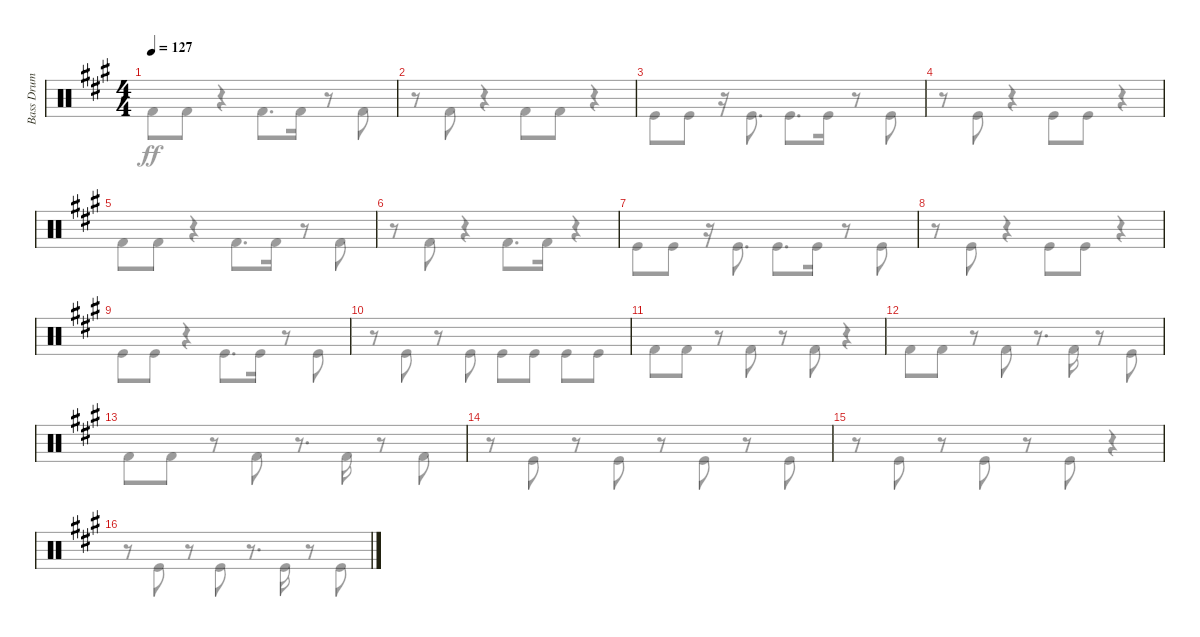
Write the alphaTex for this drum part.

\track ("Bass Drum" "Bass Drum") {instrument percussion}
\staff {score}
\articulation defaults
\voice
\ts (4 4)
\tempo 127
\clef neutral
\ks a
|
|
|
|
|
|
|
|
|
|
|
|
|
|
|
\voice
\clef neutral
\ks a "Kick (hit) 2".8{dy ff} "Kick (hit) 2".8
r.4 "Kick (hit) 2".8{d} "Kick (hit) 2".16 r.8 "Kick (hit) 2".8 |
r.8 "Kick (hit) 2".8 r.4 "Kick (hit) 2".8 "Kick (hit) 2".8 r.4 |
"Kick (hit)".8 "Kick (hit)".8 r.16 "Kick (hit)".8{d} "Kick (hit)".8{d} "Kick (hit)".16 r.8 "Kick (hit)".8 |
r.8 "Kick (hit)".8 r.4 "Kick (hit)".8 "Kick (hit)".8 r.4 |
"Kick (hit) 2".8 "Kick (hit) 2".8 r.4 "Kick (hit) 2".8{d} "Kick (hit) 2".16 r.8 "Kick (hit) 2".8 |
r.8 "Kick (hit) 2".8 r.4 "Kick (hit) 2".8{d} "Kick (hit) 2".16 r.4 |
"Kick (hit)".8 "Kick (hit)".8 r.16 "Kick (hit)".8{d} "Kick (hit)".8{d} "Kick (hit)".16 r.8 "Kick (hit)".8 |
r.8 "Kick (hit)".8 r.4 "Kick (hit)".8 "Kick (hit)".8 r.4 |
"Kick (hit)".8 "Kick (hit)".8 r.4 "Kick (hit)".8{d} "Kick (hit)".16 r.8 "Kick (hit)".8 |
r.8 "Kick (hit)".8 r.8 "Kick (hit)".8 "Kick (hit)".8 "Kick (hit)".8 "Kick (hit)".8 "Kick (hit)".8 |
"Kick (hit) 2".8 "Kick (hit) 2".8 r.8 "Kick (hit) 2".8 r.8 "Kick (hit) 2".8 r.4 |
"Kick (hit) 2".8 "Kick (hit) 2".8 r.8 "Kick (hit) 2".8 r.8{d} "Kick (hit) 2".16 r.8 "Kick (hit)".8 |
"Kick (hit) 2".8 "Kick (hit) 2".8 r.8 "Kick (hit) 2".8 r.8{d} "Kick (hit) 2".16 r.8 "Kick (hit) 2".8 |
r.8 "Kick (hit)".8 r.8 "Kick (hit)".8 r.8 "Kick (hit)".8 r.8 "Kick (hit)".8 |
r.8 "Kick (hit)".8 r.8 "Kick (hit)".8 r.8 "Kick (hit)".8 r.4 |
r.8 "Kick (hit)".8 r.8 "Kick (hit)".8 r.8{d} "Kick (hit)".16 r.8 "Kick (hit)".8
